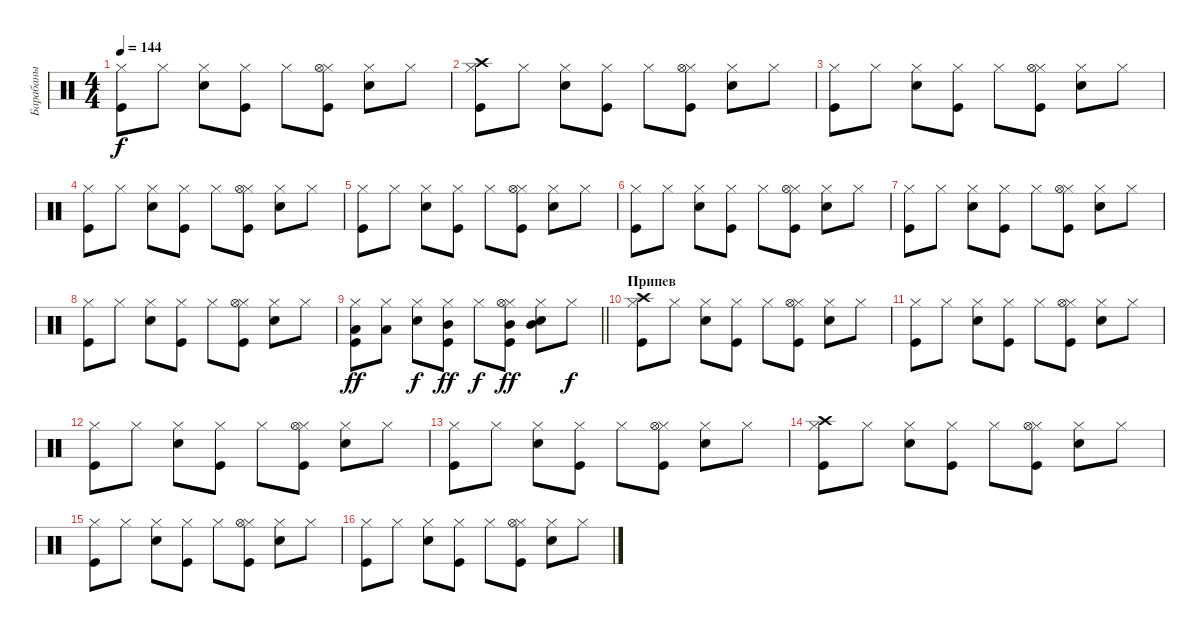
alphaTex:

\track ("Барабаны" "Барабаны") {instrument percussion}
\staff {score}
\articulation defaults
\ts (4 4)
\tempo 144
\clef neutral
\ks c
("Kick (hit)" "Hi-Hat (closed)").8{dy f} "Hi-Hat (closed)".8 ("Snare (hit) 2" "Hi-Hat (closed)").8 ("Kick (hit)" "Hi-Hat (closed)").8 "Hi-Hat (closed)".8 ("Kick (hit)" "Hi-Hat (closed)" "Hi-Hat (open)").8 ("Snare (hit) 2" "Hi-Hat (closed)").8 "Hi-Hat (closed)".8 |
("Kick (hit)" "Hi-Hat (closed)" "Crash high (hit)").8 "Hi-Hat (closed)".8 ("Snare (hit) 2" "Hi-Hat (closed)").8 ("Kick (hit)" "Hi-Hat (closed)").8 "Hi-Hat (closed)".8 ("Kick (hit)" "Hi-Hat (closed)" "Hi-Hat (open)").8 ("Snare (hit) 2" "Hi-Hat (closed)").8 "Hi-Hat (closed)".8 |
("Kick (hit)" "Hi-Hat (closed)").8 "Hi-Hat (closed)".8 ("Snare (hit) 2" "Hi-Hat (closed)").8 ("Kick (hit)" "Hi-Hat (closed)").8 "Hi-Hat (closed)".8 ("Kick (hit)" "Hi-Hat (closed)" "Hi-Hat (open)").8 ("Snare (hit) 2" "Hi-Hat (closed)").8 "Hi-Hat (closed)".8 |
("Kick (hit)" "Hi-Hat (closed)").8 "Hi-Hat (closed)".8 ("Snare (hit) 2" "Hi-Hat (closed)").8 ("Kick (hit)" "Hi-Hat (closed)").8 "Hi-Hat (closed)".8 ("Kick (hit)" "Hi-Hat (closed)" "Hi-Hat (open)").8 ("Snare (hit) 2" "Hi-Hat (closed)").8 "Hi-Hat (closed)".8 |
("Kick (hit)" "Hi-Hat (closed)").8 "Hi-Hat (closed)".8 ("Snare (hit) 2" "Hi-Hat (closed)").8 ("Kick (hit)" "Hi-Hat (closed)").8 "Hi-Hat (closed)".8 ("Kick (hit)" "Hi-Hat (closed)" "Hi-Hat (open)").8 ("Snare (hit) 2" "Hi-Hat (closed)").8 "Hi-Hat (closed)".8 |
("Kick (hit)" "Hi-Hat (closed)").8 "Hi-Hat (closed)".8 ("Snare (hit) 2" "Hi-Hat (closed)").8 ("Kick (hit)" "Hi-Hat (closed)").8 "Hi-Hat (closed)".8 ("Kick (hit)" "Hi-Hat (closed)" "Hi-Hat (open)").8 ("Snare (hit) 2" "Hi-Hat (closed)").8 "Hi-Hat (closed)".8 |
("Kick (hit)" "Hi-Hat (closed)").8 "Hi-Hat (closed)".8 ("Snare (hit) 2" "Hi-Hat (closed)").8 ("Kick (hit)" "Hi-Hat (closed)").8 "Hi-Hat (closed)".8 ("Kick (hit)" "Hi-Hat (closed)" "Hi-Hat (open)").8 ("Snare (hit) 2" "Hi-Hat (closed)").8 "Hi-Hat (closed)".8 |
("Kick (hit)" "Hi-Hat (closed)").8 "Hi-Hat (closed)".8 ("Snare (hit) 2" "Hi-Hat (closed)").8 ("Kick (hit)" "Hi-Hat (closed)").8 "Hi-Hat (closed)".8 ("Kick (hit)" "Hi-Hat (closed)" "Hi-Hat (open)").8 ("Snare (hit) 2" "Hi-Hat (closed)").8 "Hi-Hat (closed)".8 |
\barLineRight lightlight
("Kick (hit)" "Hi-Hat (closed)" "Low Floor Tom (hit)").8{dy ff} ("Hi-Hat (closed)" "Low Floor Tom (hit)").8 ("Snare (hit) 2" "Hi-Hat (closed)").8{dy f} ("Kick (hit)" "Hi-Hat (closed)" "Mid Tom (hit)").8{dy ff} "Hi-Hat (closed)".8{dy f} ("Kick (hit)" "Hi-Hat (closed)" "Mid Tom (hit)" "Hi-Hat (open)").8{dy ff} ("Snare (hit) 2" "Hi-Hat (closed)" "Mid Tom (hit)").8 "Hi-Hat (closed)".8{dy f} |
\section ("" "Припев")
("Kick (hit)" "Hi-Hat (closed)" "Crash high (hit)").8 "Hi-Hat (closed)".8 ("Snare (hit) 2" "Hi-Hat (closed)").8 ("Kick (hit)" "Hi-Hat (closed)").8 "Hi-Hat (closed)".8 ("Kick (hit)" "Hi-Hat (closed)" "Hi-Hat (open)").8 ("Snare (hit) 2" "Hi-Hat (closed)").8 "Hi-Hat (closed)".8 |
("Kick (hit)" "Hi-Hat (closed)").8 "Hi-Hat (closed)".8 ("Snare (hit) 2" "Hi-Hat (closed)").8 ("Kick (hit)" "Hi-Hat (closed)").8 "Hi-Hat (closed)".8 ("Kick (hit)" "Hi-Hat (closed)" "Hi-Hat (open)").8 ("Snare (hit) 2" "Hi-Hat (closed)").8 "Hi-Hat (closed)".8 |
("Kick (hit)" "Hi-Hat (closed)").8 "Hi-Hat (closed)".8 ("Snare (hit) 2" "Hi-Hat (closed)").8 ("Kick (hit)" "Hi-Hat (closed)").8 "Hi-Hat (closed)".8 ("Kick (hit)" "Hi-Hat (closed)" "Hi-Hat (open)").8 ("Snare (hit) 2" "Hi-Hat (closed)").8 "Hi-Hat (closed)".8 |
("Kick (hit)" "Hi-Hat (closed)").8 "Hi-Hat (closed)".8 ("Snare (hit) 2" "Hi-Hat (closed)").8 ("Kick (hit)" "Hi-Hat (closed)").8 "Hi-Hat (closed)".8 ("Kick (hit)" "Hi-Hat (closed)" "Hi-Hat (open)").8 ("Snare (hit) 2" "Hi-Hat (closed)").8 "Hi-Hat (closed)".8 |
("Kick (hit)" "Hi-Hat (closed)" "Crash high (hit)").8 "Hi-Hat (closed)".8 ("Snare (hit) 2" "Hi-Hat (closed)").8 ("Kick (hit)" "Hi-Hat (closed)").8 "Hi-Hat (closed)".8 ("Kick (hit)" "Hi-Hat (closed)" "Hi-Hat (open)").8 ("Snare (hit) 2" "Hi-Hat (closed)").8 "Hi-Hat (closed)".8 |
("Kick (hit)" "Hi-Hat (closed)").8 "Hi-Hat (closed)".8 ("Snare (hit) 2" "Hi-Hat (closed)").8 ("Kick (hit)" "Hi-Hat (closed)").8 "Hi-Hat (closed)".8 ("Kick (hit)" "Hi-Hat (closed)" "Hi-Hat (open)").8 ("Snare (hit) 2" "Hi-Hat (closed)").8 "Hi-Hat (closed)".8 |
("Kick (hit)" "Hi-Hat (closed)").8 "Hi-Hat (closed)".8 ("Snare (hit) 2" "Hi-Hat (closed)").8 ("Kick (hit)" "Hi-Hat (closed)").8 "Hi-Hat (closed)".8 ("Kick (hit)" "Hi-Hat (closed)" "Hi-Hat (open)").8 ("Snare (hit) 2" "Hi-Hat (closed)").8 "Hi-Hat (closed)".8
